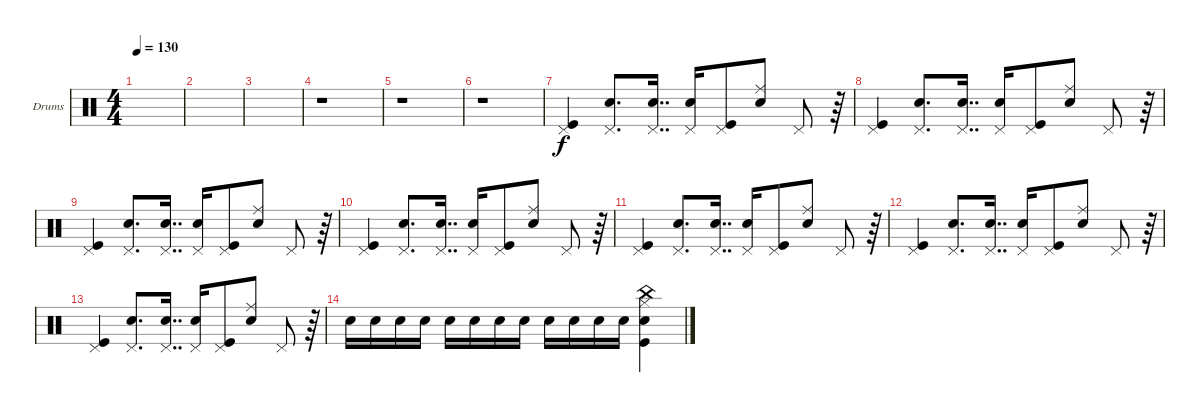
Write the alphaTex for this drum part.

\defaultSystemsLayout 4
\bracketExtendMode groupsimilarinstruments
\firstSystemTrackNameOrientation horizontal
\otherSystemsTrackNameOrientation horizontal
\track ("Drumkit" "Drums") {instrument percussion}
\staff {score}
\articulation defaults
\ts (4 4)
\tempo 130
\clef neutral
\ks c
|
|
\scale
0.472222 |
\scale
0.263889 r.1 |
\scale
0.263889 r.1 |
\scale
0.333333 r.1 |
\scale
0.333333 ("Kick (hit)" "Pedal Hi-Hat (hit)").4 ("Snare (hit) 2" "Pedal Hi-Hat (hit)").8{d} ("Snare (hit) 2" "Pedal Hi-Hat (hit)").16{dd} ("Snare (hit) 2" "Pedal Hi-Hat (hit)").16 ("Kick (hit)" "Pedal Hi-Hat (hit)").8 ("Snare (hit) 2" "Ride (middle)").8 "Pedal Hi-Hat (hit)".8 r.64 |
\scale
0.333333 ("Kick (hit)" "Pedal Hi-Hat (hit)").4 ("Snare (hit) 2" "Pedal Hi-Hat (hit)").8{d} ("Snare (hit) 2" "Pedal Hi-Hat (hit)").16{dd} ("Snare (hit) 2" "Pedal Hi-Hat (hit)").16 ("Kick (hit)" "Pedal Hi-Hat (hit)").8 ("Snare (hit) 2" "Ride (middle)").8 "Pedal Hi-Hat (hit)".8 r.64 |
\scale
0.333333 ("Kick (hit)" "Pedal Hi-Hat (hit)").4 ("Snare (hit) 2" "Pedal Hi-Hat (hit)").8{d} ("Snare (hit) 2" "Pedal Hi-Hat (hit)").16{dd} ("Snare (hit) 2" "Pedal Hi-Hat (hit)").16 ("Kick (hit)" "Pedal Hi-Hat (hit)").8 ("Snare (hit) 2" "Ride (middle)").8 "Pedal Hi-Hat (hit)".8 r.64 |
\scale
0.333333 ("Kick (hit)" "Pedal Hi-Hat (hit)").4 ("Snare (hit) 2" "Pedal Hi-Hat (hit)").8{d} ("Snare (hit) 2" "Pedal Hi-Hat (hit)").16{dd} ("Snare (hit) 2" "Pedal Hi-Hat (hit)").16 ("Kick (hit)" "Pedal Hi-Hat (hit)").8 ("Snare (hit) 2" "Ride (middle)").8 "Pedal Hi-Hat (hit)".8 r.64 |
\scale
0.333333 ("Kick (hit)" "Pedal Hi-Hat (hit)").4 ("Snare (hit) 2" "Pedal Hi-Hat (hit)").8{d} ("Snare (hit) 2" "Pedal Hi-Hat (hit)").16{dd} ("Snare (hit) 2" "Pedal Hi-Hat (hit)").16 ("Kick (hit)" "Pedal Hi-Hat (hit)").8 ("Snare (hit) 2" "Ride (middle)").8 "Pedal Hi-Hat (hit)".8 r.64 |
\scale
0.333333 ("Kick (hit)" "Pedal Hi-Hat (hit)").4 ("Snare (hit) 2" "Pedal Hi-Hat (hit)").8{d} ("Snare (hit) 2" "Pedal Hi-Hat (hit)").16{dd} ("Snare (hit) 2" "Pedal Hi-Hat (hit)").16 ("Kick (hit)" "Pedal Hi-Hat (hit)").8 ("Snare (hit) 2" "Ride (middle)").8 "Pedal Hi-Hat (hit)".8 r.64 |
\scale
0.333333 ("Kick (hit)" "Pedal Hi-Hat (hit)").4 ("Snare (hit) 2" "Pedal Hi-Hat (hit)").8{d} ("Snare (hit) 2" "Pedal Hi-Hat (hit)").16{dd} ("Snare (hit) 2" "Pedal Hi-Hat (hit)").16 ("Kick (hit)" "Pedal Hi-Hat (hit)").8 ("Snare (hit) 2" "Ride (middle)").8 "Pedal Hi-Hat (hit)".8 r.64 |
\scale
0.333333 "Snare (hit) 2".16 "Snare (hit) 2".16 "Snare (hit) 2".16 "Snare (hit) 2".16 "Snare (hit) 2".16 "Snare (hit) 2".16 "Snare (hit) 2".16 "Snare (hit) 2".16 "Snare (hit) 2".16 "Snare (hit) 2".16 "Snare (hit) 2".16 "Snare (hit) 2".16 ("Snare (hit) 2" "Hi-Hat (closed)" "China (hit)" "Kick (hit)").4 |
\scale
0.333333 |
\scale
0.333333
